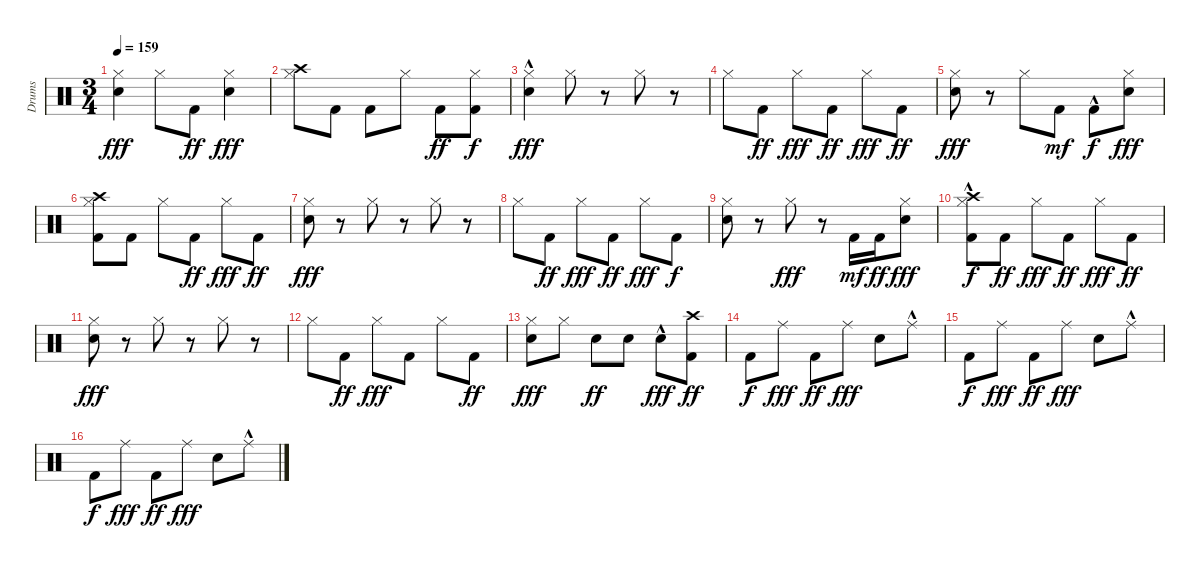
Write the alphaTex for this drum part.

\track ("Drums" "Drums") {instrument percussion}
\staff {score}
\articulation defaults
\ts (3 4)
\tempo 159
\clef neutral
\ks c
("Hi-Hat (closed)" "Snare (hit) 2").4{dy fff} "Hi-Hat (closed)".8 "Kick (hit) 2".8{dy ff} ("Snare (hit) 2" "Hi-Hat (closed)").4{dy fff} |
("Crash high (hit)" "Hi-Hat (closed)").8 "Kick (hit) 2".8 "Kick (hit) 2".8 "Hi-Hat (closed)".8 "Kick (hit) 2".8{dy ff} ("Kick (hit) 2" "Hi-Hat (closed)").8{dy f} |
("Hi-Hat (closed)" "Snare (hit) 2"{hac}).4{dy fff} "Hi-Hat (closed)".8 r.8 "Hi-Hat (closed)".8 r.8 |
"Hi-Hat (closed)".8 "Kick (hit) 2".8{dy ff} "Hi-Hat (closed)".8{dy fff} "Kick (hit) 2".8{dy ff} "Hi-Hat (closed)".8{dy fff} "Kick (hit) 2".8{dy ff} |
("Hi-Hat (closed)" "Snare (hit) 2").8{dy fff} r.8 "Hi-Hat (closed)".8 "Kick (hit) 2".8{dy mf} "Kick (hit) 2"{hac}.8{dy f} ("Hi-Hat (closed)" "Snare (hit) 2").8{dy fff} |
("Hi-Hat (closed)" "Crash high (hit)" "Kick (hit) 2").8 "Kick (hit) 2".8 "Hi-Hat (closed)".8 "Kick (hit) 2".8{dy ff} "Hi-Hat (closed)".8{dy fff} "Kick (hit) 2".8{dy ff} |
("Hi-Hat (closed)" "Snare (hit) 2").8{dy fff} r.8 "Hi-Hat (closed)".8 r.8 "Hi-Hat (closed)".8 r.8 |
"Hi-Hat (closed)".8 "Kick (hit) 2".8{dy ff} "Hi-Hat (closed)".8{dy fff} "Kick (hit) 2".8{dy ff} "Hi-Hat (closed)".8{dy fff} "Kick (hit) 2".8{dy f} |
("Hi-Hat (closed)" "Snare (hit) 2").8 r.8 "Hi-Hat (closed)".8{dy fff} r.8 "Kick (hit) 2".16{dy mf} "Kick (hit) 2".16{dy ff} ("Snare (hit) 2" "Hi-Hat (closed)").8{dy fff} |
("Kick (hit) 2"{hac} "Crash high (hit)"{hac} "Hi-Hat (closed)").8{dy f} "Kick (hit) 2".8{dy ff} "Hi-Hat (closed)".8{dy fff} "Kick (hit) 2".8{dy ff} "Hi-Hat (closed)".8{dy fff} "Kick (hit) 2".8{dy ff} |
("Hi-Hat (closed)" "Snare (hit) 2").8{dy fff} r.8 "Hi-Hat (closed)".8 r.8 "Hi-Hat (closed)".8 r.8 |
"Hi-Hat (closed)".8 "Kick (hit) 2".8{dy ff} "Hi-Hat (closed)".8{dy fff} "Kick (hit) 2".8 "Hi-Hat (closed)".8 "Kick (hit) 2".8{dy ff} |
("Snare (hit) 2" "Hi-Hat (closed)").8{dy fff} "Hi-Hat (closed)".8 "Snare (hit) 2".8{dy ff} "Snare (hit) 2".8 "Snare (hit) 2"{hac}.8{dy fff} ("Crash high (hit)" "Kick (hit) 2").8{dy ff} |
"Kick (hit) 2".8{dy f} "Ride (middle)".8{dy fff} "Kick (hit) 2".8{dy ff} "Ride (middle)".8{dy fff} "Snare (hit) 2".8 "Ride (middle)"{hac}.8 |
"Kick (hit) 2".8{dy f} "Ride (middle)".8{dy fff} "Kick (hit) 2".8{dy ff} "Ride (middle)".8{dy fff} "Snare (hit) 2".8 "Ride (middle)"{hac}.8 |
"Kick (hit) 2".8{dy f} "Ride (middle)".8{dy fff} "Kick (hit) 2".8{dy ff} "Ride (middle)".8{dy fff} "Snare (hit) 2".8 "Ride (middle)"{hac}.8
